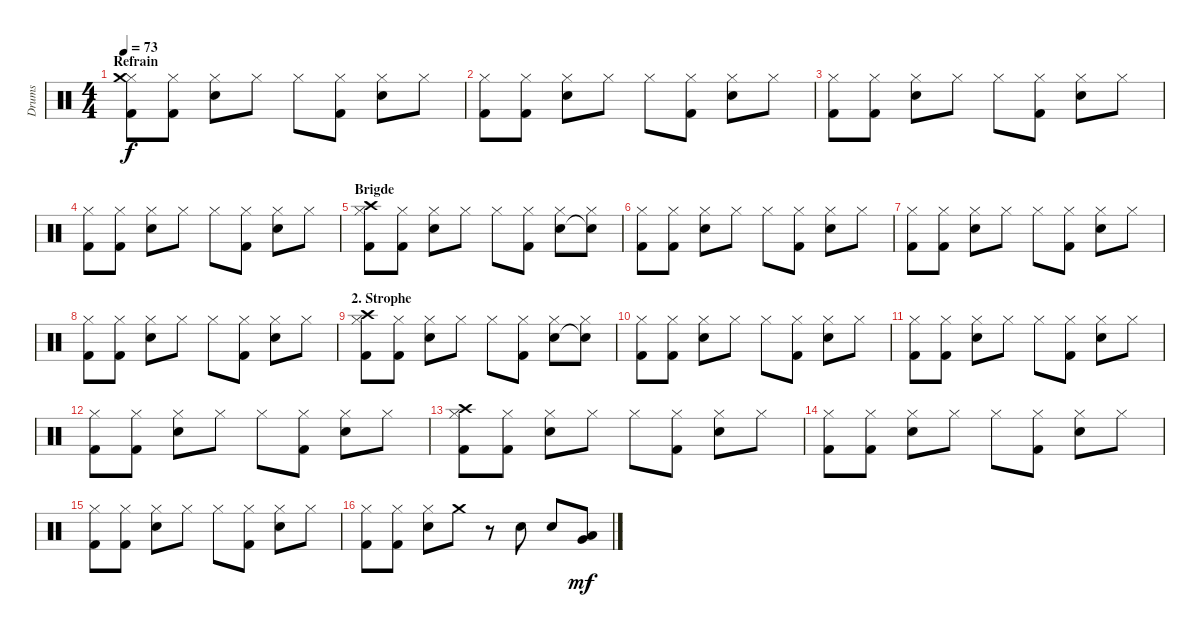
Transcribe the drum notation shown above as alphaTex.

\track ("Drums" "Drums") {instrument percussion}
\staff {score}
\articulation defaults
\ts (4 4)
\section ("" "Refrain")
\tempo 73
\clef neutral
\ks c
("Hi-Hat (closed)" "Crash medium (hit)" "Kick (hit) 2").8{dy f} ("Hi-Hat (closed)" "Kick (hit) 2").8 ("Hi-Hat (closed)" "Electric Snare (hit)").8 "Hi-Hat (closed)".8 "Hi-Hat (closed)".8 ("Hi-Hat (closed)" "Kick (hit) 2").8 ("Hi-Hat (closed)" "Electric Snare (hit)").8 "Hi-Hat (closed)".8 |
("Hi-Hat (closed)" "Kick (hit) 2").8 ("Hi-Hat (closed)" "Kick (hit) 2").8 ("Hi-Hat (closed)" "Electric Snare (hit)").8 "Hi-Hat (closed)".8 "Hi-Hat (closed)".8 ("Hi-Hat (closed)" "Kick (hit) 2").8 ("Hi-Hat (closed)" "Electric Snare (hit)").8 "Hi-Hat (closed)".8 |
("Hi-Hat (closed)" "Kick (hit) 2").8 ("Hi-Hat (closed)" "Kick (hit) 2").8 ("Hi-Hat (closed)" "Electric Snare (hit)").8 "Hi-Hat (closed)".8 "Hi-Hat (closed)".8 ("Hi-Hat (closed)" "Kick (hit) 2").8 ("Hi-Hat (closed)" "Electric Snare (hit)").8 "Hi-Hat (closed)".8 |
("Hi-Hat (closed)" "Kick (hit) 2").8 ("Hi-Hat (closed)" "Kick (hit) 2").8 ("Hi-Hat (closed)" "Electric Snare (hit)").8 "Hi-Hat (closed)".8 "Hi-Hat (closed)".8 ("Hi-Hat (closed)" "Kick (hit) 2").8 ("Hi-Hat (closed)" "Electric Snare (hit)").8 "Hi-Hat (closed)".8 |
\section ("" "Brigde")
("Hi-Hat (closed)" "Crash high (hit)" "Kick (hit) 2").8 ("Hi-Hat (closed)" "Kick (hit) 2").8 ("Hi-Hat (closed)" "Electric Snare (hit)").8 "Hi-Hat (closed)".8 "Hi-Hat (closed)".8 ("Hi-Hat (closed)" "Kick (hit) 2").8 ("Hi-Hat (closed)" "Electric Snare (hit)").8 ("Hi-Hat (closed)" "Snare (hit)"{t}).8 |
("Hi-Hat (closed)" "Kick (hit) 2").8 ("Hi-Hat (closed)" "Kick (hit) 2").8 ("Hi-Hat (closed)" "Electric Snare (hit)").8 "Hi-Hat (closed)".8 "Hi-Hat (closed)".8 ("Hi-Hat (closed)" "Kick (hit) 2").8 ("Hi-Hat (closed)" "Electric Snare (hit)").8 "Hi-Hat (closed)".8 |
("Hi-Hat (closed)" "Kick (hit) 2").8 ("Hi-Hat (closed)" "Kick (hit) 2").8 ("Hi-Hat (closed)" "Electric Snare (hit)").8 "Hi-Hat (closed)".8 "Hi-Hat (closed)".8 ("Hi-Hat (closed)" "Kick (hit) 2").8 ("Hi-Hat (closed)" "Electric Snare (hit)").8 "Hi-Hat (closed)".8 |
("Hi-Hat (closed)" "Kick (hit) 2").8 ("Hi-Hat (closed)" "Kick (hit) 2").8 ("Hi-Hat (closed)" "Electric Snare (hit)").8 "Hi-Hat (closed)".8 "Hi-Hat (closed)".8 ("Hi-Hat (closed)" "Kick (hit) 2").8 ("Hi-Hat (closed)" "Electric Snare (hit)").8 "Hi-Hat (closed)".8 |
\section ("" "2. Strophe")
("Hi-Hat (closed)" "Crash high (hit)" "Kick (hit) 2").8 ("Hi-Hat (closed)" "Kick (hit) 2").8 ("Hi-Hat (closed)" "Electric Snare (hit)").8 "Hi-Hat (closed)".8 "Hi-Hat (closed)".8 ("Hi-Hat (closed)" "Kick (hit) 2").8 ("Hi-Hat (closed)" "Electric Snare (hit)").8 ("Hi-Hat (closed)" "Snare (hit)"{t}).8 |
("Hi-Hat (closed)" "Kick (hit) 2").8 ("Hi-Hat (closed)" "Kick (hit) 2").8 ("Hi-Hat (closed)" "Electric Snare (hit)").8 "Hi-Hat (closed)".8 "Hi-Hat (closed)".8 ("Hi-Hat (closed)" "Kick (hit) 2").8 ("Hi-Hat (closed)" "Electric Snare (hit)").8 "Hi-Hat (closed)".8 |
("Hi-Hat (closed)" "Kick (hit) 2").8 ("Hi-Hat (closed)" "Kick (hit) 2").8 ("Hi-Hat (closed)" "Electric Snare (hit)").8 "Hi-Hat (closed)".8 "Hi-Hat (closed)".8 ("Hi-Hat (closed)" "Kick (hit) 2").8 ("Hi-Hat (closed)" "Electric Snare (hit)").8 "Hi-Hat (closed)".8 |
("Hi-Hat (closed)" "Kick (hit) 2").8 ("Hi-Hat (closed)" "Kick (hit) 2").8 ("Hi-Hat (closed)" "Electric Snare (hit)").8 "Hi-Hat (closed)".8 "Hi-Hat (closed)".8 ("Hi-Hat (closed)" "Kick (hit) 2").8 ("Hi-Hat (closed)" "Electric Snare (hit)").8 "Hi-Hat (closed)".8 |
("Hi-Hat (closed)" "Crash high (hit)" "Kick (hit) 2").8 ("Hi-Hat (closed)" "Kick (hit) 2").8 ("Hi-Hat (closed)" "Electric Snare (hit)").8 "Hi-Hat (closed)".8 "Hi-Hat (closed)".8 ("Hi-Hat (closed)" "Kick (hit) 2").8 ("Hi-Hat (closed)" "Electric Snare (hit)").8 "Hi-Hat (closed)".8 |
("Hi-Hat (closed)" "Kick (hit) 2").8 ("Hi-Hat (closed)" "Kick (hit) 2").8 ("Hi-Hat (closed)" "Electric Snare (hit)").8 "Hi-Hat (closed)".8 "Hi-Hat (closed)".8 ("Hi-Hat (closed)" "Kick (hit) 2").8 ("Hi-Hat (closed)" "Electric Snare (hit)").8 "Hi-Hat (closed)".8 |
("Hi-Hat (closed)" "Kick (hit) 2").8 ("Hi-Hat (closed)" "Kick (hit) 2").8 ("Hi-Hat (closed)" "Electric Snare (hit)").8 "Hi-Hat (closed)".8 "Hi-Hat (closed)".8 ("Hi-Hat (closed)" "Kick (hit) 2").8 ("Hi-Hat (closed)" "Electric Snare (hit)").8 "Hi-Hat (closed)".8 |
("Hi-Hat (closed)" "Kick (hit) 2").8 ("Hi-Hat (closed)" "Kick (hit) 2").8 ("Hi-Hat (closed)" "Electric Snare (hit)").8 "Crash medium (hit)".8 r.8 "Electric Snare (hit)".8 "Electric Snare (hit)".8 ("Very Low Tom (hit)" "Low Tom (hit)").8{dy mf}
